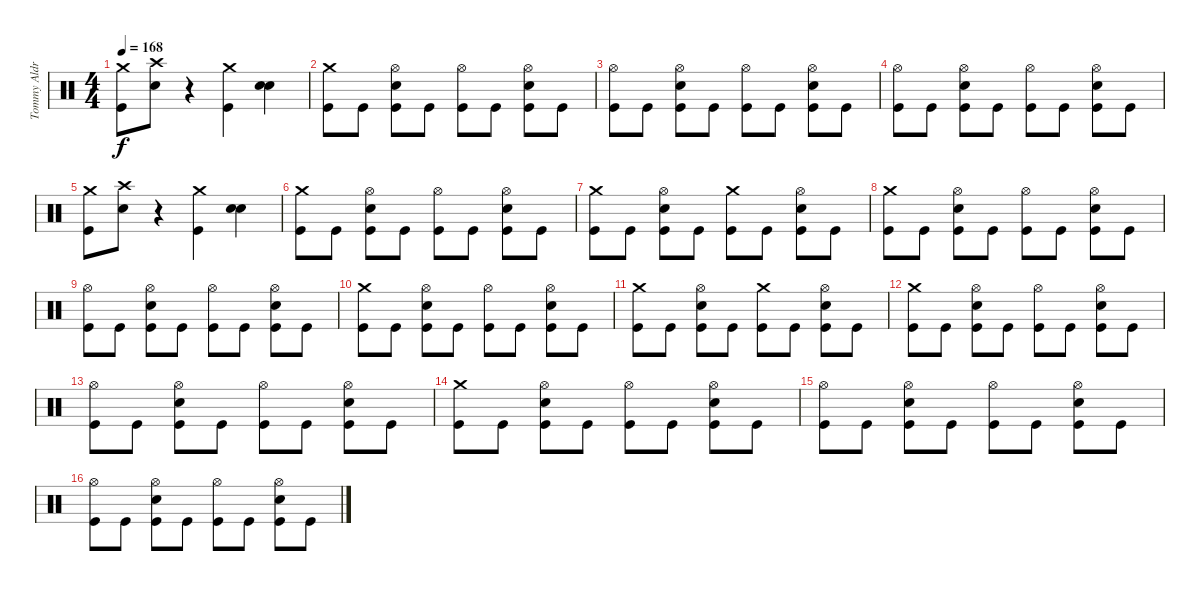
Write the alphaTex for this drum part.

\track ("Tommy Aldrige" "Tommy Aldr") {instrument percussion}
\staff {score}
\articulation defaults
\ts (4 4)
\tempo 168
\clef neutral
\ks c
("Crash medium (hit)" "Kick (hit)").8{dy f} ("Crash high (hit)" "Snare (hit) 2").8 r.4 ("Crash medium (hit)" "Kick (hit)").4 ("Snare (hit) 2" "Snare (hit) 2").4{bd 240} |
("Crash medium (hit)" "Kick (hit)").8 "Kick (hit)".8 ("Hi-Hat (open)" "Snare (hit) 2" "Kick (hit)").8 "Kick (hit)".8 ("Hi-Hat (open)" "Kick (hit)").8 "Kick (hit)".8 ("Hi-Hat (open)" "Snare (hit) 2" "Kick (hit)").8 "Kick (hit)".8 |
("Hi-Hat (open)" "Kick (hit)").8 "Kick (hit)".8 ("Hi-Hat (open)" "Snare (hit) 2" "Kick (hit)").8 "Kick (hit)".8 ("Hi-Hat (open)" "Kick (hit)").8 "Kick (hit)".8 ("Hi-Hat (open)" "Snare (hit) 2" "Kick (hit)").8 "Kick (hit)".8 |
("Hi-Hat (open)" "Kick (hit)").8 "Kick (hit)".8 ("Hi-Hat (open)" "Snare (hit) 2" "Kick (hit)").8 "Kick (hit)".8 ("Hi-Hat (open)" "Kick (hit)").8 "Kick (hit)".8 ("Hi-Hat (open)" "Snare (hit) 2" "Kick (hit)").8 "Kick (hit)".8 |
("Crash medium (hit)" "Kick (hit)").8 ("Crash high (hit)" "Snare (hit) 2").8 r.4 ("Crash medium (hit)" "Kick (hit)").4 ("Snare (hit) 2" "Snare (hit) 2").4{bd 240} |
("Crash medium (hit)" "Kick (hit)").8 "Kick (hit)".8 ("Hi-Hat (open)" "Snare (hit) 2" "Kick (hit)").8 "Kick (hit)".8 ("Hi-Hat (open)" "Kick (hit)").8 "Kick (hit)".8 ("Hi-Hat (open)" "Snare (hit) 2" "Kick (hit)").8 "Kick (hit)".8 |
("Crash medium (hit)" "Kick (hit)").8 "Kick (hit)".8 ("Hi-Hat (open)" "Snare (hit) 2" "Kick (hit)").8 "Kick (hit)".8 ("Crash medium (hit)" "Kick (hit)").8 "Kick (hit)".8 ("Hi-Hat (open)" "Snare (hit) 2" "Kick (hit)").8 "Kick (hit)".8 |
("Crash medium (hit)" "Kick (hit)").8 "Kick (hit)".8 ("Hi-Hat (open)" "Snare (hit) 2" "Kick (hit)").8 "Kick (hit)".8 ("Hi-Hat (open)" "Kick (hit)").8 "Kick (hit)".8 ("Hi-Hat (open)" "Snare (hit) 2" "Kick (hit)").8 "Kick (hit)".8 |
("Hi-Hat (open)" "Kick (hit)").8 "Kick (hit)".8 ("Hi-Hat (open)" "Snare (hit) 2" "Kick (hit)").8 "Kick (hit)".8 ("Hi-Hat (open)" "Kick (hit)").8 "Kick (hit)".8 ("Hi-Hat (open)" "Snare (hit) 2" "Kick (hit)").8 "Kick (hit)".8 |
("Crash medium (hit)" "Kick (hit)").8 "Kick (hit)".8 ("Hi-Hat (open)" "Snare (hit) 2" "Kick (hit)").8 "Kick (hit)".8 ("Hi-Hat (open)" "Kick (hit)").8 "Kick (hit)".8 ("Hi-Hat (open)" "Snare (hit) 2" "Kick (hit)").8 "Kick (hit)".8 |
("Crash medium (hit)" "Kick (hit)").8 "Kick (hit)".8 ("Hi-Hat (open)" "Snare (hit) 2" "Kick (hit)").8 "Kick (hit)".8 ("Crash medium (hit)" "Kick (hit)").8 "Kick (hit)".8 ("Hi-Hat (open)" "Snare (hit) 2" "Kick (hit)").8 "Kick (hit)".8 |
("Crash medium (hit)" "Kick (hit)").8 "Kick (hit)".8 ("Hi-Hat (open)" "Snare (hit) 2" "Kick (hit)").8 "Kick (hit)".8 ("Hi-Hat (open)" "Kick (hit)").8 "Kick (hit)".8 ("Hi-Hat (open)" "Snare (hit) 2" "Kick (hit)").8 "Kick (hit)".8 |
("Hi-Hat (open)" "Kick (hit)").8 "Kick (hit)".8 ("Hi-Hat (open)" "Snare (hit) 2" "Kick (hit)").8 "Kick (hit)".8 ("Hi-Hat (open)" "Kick (hit)").8 "Kick (hit)".8 ("Hi-Hat (open)" "Snare (hit) 2" "Kick (hit)").8 "Kick (hit)".8 |
("Crash medium (hit)" "Kick (hit)").8 "Kick (hit)".8 ("Hi-Hat (open)" "Snare (hit) 2" "Kick (hit)").8 "Kick (hit)".8 ("Hi-Hat (open)" "Kick (hit)").8 "Kick (hit)".8 ("Hi-Hat (open)" "Snare (hit) 2" "Kick (hit)").8 "Kick (hit)".8 |
("Hi-Hat (open)" "Kick (hit)").8 "Kick (hit)".8 ("Hi-Hat (open)" "Snare (hit) 2" "Kick (hit)").8 "Kick (hit)".8 ("Hi-Hat (open)" "Kick (hit)").8 "Kick (hit)".8 ("Hi-Hat (open)" "Snare (hit) 2" "Kick (hit)").8 "Kick (hit)".8 |
("Hi-Hat (open)" "Kick (hit)").8 "Kick (hit)".8 ("Hi-Hat (open)" "Snare (hit) 2" "Kick (hit)").8 "Kick (hit)".8 ("Hi-Hat (open)" "Kick (hit)").8 "Kick (hit)".8 ("Hi-Hat (open)" "Snare (hit) 2" "Kick (hit)").8 "Kick (hit)".8
